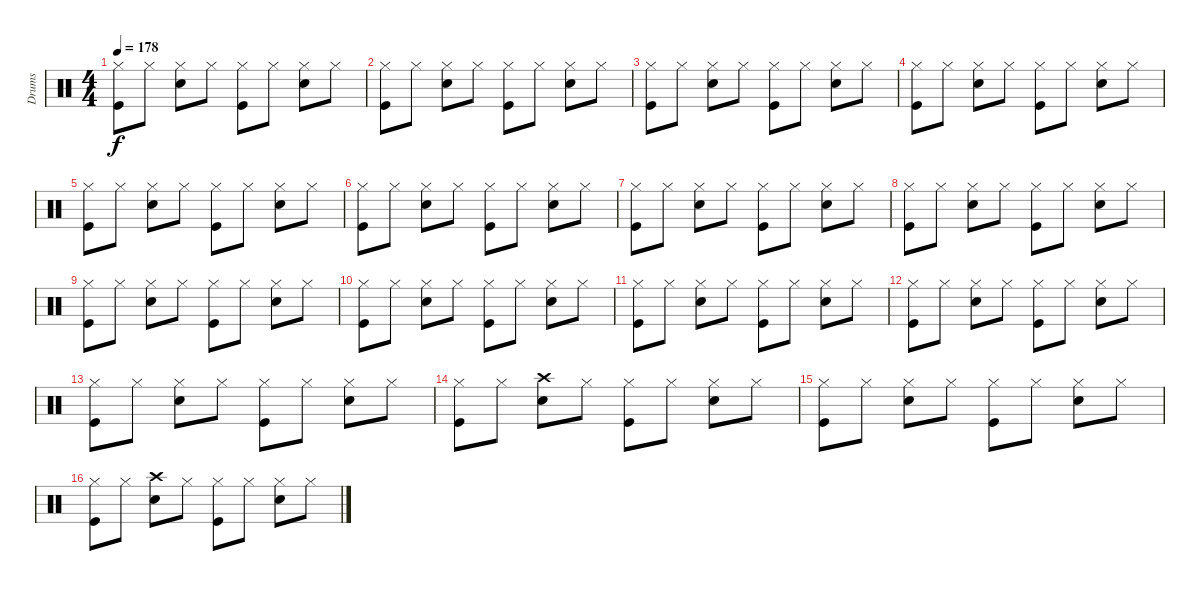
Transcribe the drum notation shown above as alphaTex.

\track ("Drums" "Drums") {instrument percussion}
\staff {score}
\articulation defaults
\ts (4 4)
\tempo 178
\clef neutral
\ks c
("Hi-Hat (closed)" "Kick (hit)").8{dy f} "Hi-Hat (closed)".8 ("Hi-Hat (closed)" "Electric Snare (hit)").8 "Hi-Hat (closed)".8 ("Hi-Hat (closed)" "Kick (hit)").8 "Hi-Hat (closed)".8 ("Hi-Hat (closed)" "Electric Snare (hit)").8 "Hi-Hat (closed)".8 |
("Hi-Hat (closed)" "Kick (hit)").8 "Hi-Hat (closed)".8 ("Hi-Hat (closed)" "Electric Snare (hit)").8 "Hi-Hat (closed)".8 ("Hi-Hat (closed)" "Kick (hit)").8 "Hi-Hat (closed)".8 ("Hi-Hat (closed)" "Electric Snare (hit)").8 "Hi-Hat (closed)".8 |
("Hi-Hat (closed)" "Kick (hit)").8 "Hi-Hat (closed)".8 ("Hi-Hat (closed)" "Electric Snare (hit)").8 "Hi-Hat (closed)".8 ("Hi-Hat (closed)" "Kick (hit)").8 "Hi-Hat (closed)".8 ("Hi-Hat (closed)" "Electric Snare (hit)").8 "Hi-Hat (closed)".8 |
("Hi-Hat (closed)" "Kick (hit)").8 "Hi-Hat (closed)".8 ("Hi-Hat (closed)" "Electric Snare (hit)").8 "Hi-Hat (closed)".8 ("Hi-Hat (closed)" "Kick (hit)").8 "Hi-Hat (closed)".8 ("Hi-Hat (closed)" "Electric Snare (hit)").8 "Hi-Hat (closed)".8 |
("Hi-Hat (closed)" "Kick (hit)").8 "Hi-Hat (closed)".8 ("Hi-Hat (closed)" "Electric Snare (hit)").8 "Hi-Hat (closed)".8 ("Hi-Hat (closed)" "Kick (hit)").8 "Hi-Hat (closed)".8 ("Hi-Hat (closed)" "Electric Snare (hit)").8 "Hi-Hat (closed)".8 |
("Hi-Hat (closed)" "Kick (hit)").8 "Hi-Hat (closed)".8 ("Hi-Hat (closed)" "Electric Snare (hit)").8 "Hi-Hat (closed)".8 ("Hi-Hat (closed)" "Kick (hit)").8 "Hi-Hat (closed)".8 ("Hi-Hat (closed)" "Electric Snare (hit)").8 "Hi-Hat (closed)".8 |
("Hi-Hat (closed)" "Kick (hit)").8 "Hi-Hat (closed)".8 ("Hi-Hat (closed)" "Electric Snare (hit)").8 "Hi-Hat (closed)".8 ("Hi-Hat (closed)" "Kick (hit)").8 "Hi-Hat (closed)".8 ("Hi-Hat (closed)" "Electric Snare (hit)").8 "Hi-Hat (closed)".8 |
("Hi-Hat (closed)" "Kick (hit)").8 "Hi-Hat (closed)".8 ("Hi-Hat (closed)" "Electric Snare (hit)").8 "Hi-Hat (closed)".8 ("Hi-Hat (closed)" "Kick (hit)").8 "Hi-Hat (closed)".8 ("Hi-Hat (closed)" "Electric Snare (hit)").8 "Hi-Hat (closed)".8 |
("Hi-Hat (closed)" "Kick (hit)").8 "Hi-Hat (closed)".8 ("Hi-Hat (closed)" "Electric Snare (hit)").8 "Hi-Hat (closed)".8 ("Hi-Hat (closed)" "Kick (hit)").8 "Hi-Hat (closed)".8 ("Hi-Hat (closed)" "Electric Snare (hit)").8 "Hi-Hat (closed)".8 |
("Hi-Hat (closed)" "Kick (hit)").8 "Hi-Hat (closed)".8 ("Hi-Hat (closed)" "Electric Snare (hit)").8 "Hi-Hat (closed)".8 ("Hi-Hat (closed)" "Kick (hit)").8 "Hi-Hat (closed)".8 ("Hi-Hat (closed)" "Electric Snare (hit)").8 "Hi-Hat (closed)".8 |
("Hi-Hat (closed)" "Kick (hit)").8 "Hi-Hat (closed)".8 ("Hi-Hat (closed)" "Electric Snare (hit)").8 "Hi-Hat (closed)".8 ("Hi-Hat (closed)" "Kick (hit)").8 "Hi-Hat (closed)".8 ("Hi-Hat (closed)" "Electric Snare (hit)").8 "Hi-Hat (closed)".8 |
("Hi-Hat (closed)" "Kick (hit)").8 "Hi-Hat (closed)".8 ("Hi-Hat (closed)" "Electric Snare (hit)").8 "Hi-Hat (closed)".8 ("Hi-Hat (closed)" "Kick (hit)").8 "Hi-Hat (closed)".8 ("Hi-Hat (closed)" "Electric Snare (hit)").8 "Hi-Hat (closed)".8 |
("Hi-Hat (closed)" "Kick (hit)").8 "Hi-Hat (closed)".8 ("Hi-Hat (closed)" "Electric Snare (hit)").8 "Hi-Hat (closed)".8 ("Hi-Hat (closed)" "Kick (hit)").8 "Hi-Hat (closed)".8 ("Hi-Hat (closed)" "Electric Snare (hit)").8 "Hi-Hat (closed)".8 |
("Hi-Hat (closed)" "Kick (hit)").8 "Hi-Hat (closed)".8 ("Crash high (hit)" "Electric Snare (hit)").8 "Hi-Hat (closed)".8 ("Hi-Hat (closed)" "Kick (hit)").8 "Hi-Hat (closed)".8 ("Hi-Hat (closed)" "Electric Snare (hit)").8 "Hi-Hat (closed)".8 |
("Hi-Hat (closed)" "Kick (hit)").8 "Hi-Hat (closed)".8 ("Hi-Hat (closed)" "Electric Snare (hit)").8 "Hi-Hat (closed)".8 ("Hi-Hat (closed)" "Kick (hit)").8 "Hi-Hat (closed)".8 ("Hi-Hat (closed)" "Electric Snare (hit)").8 "Hi-Hat (closed)".8 |
("Hi-Hat (closed)" "Kick (hit)").8 "Hi-Hat (closed)".8 ("Crash high (hit)" "Electric Snare (hit)").8 "Hi-Hat (closed)".8 ("Hi-Hat (closed)" "Kick (hit)").8 "Hi-Hat (closed)".8 ("Hi-Hat (closed)" "Electric Snare (hit)").8 "Hi-Hat (closed)".8
